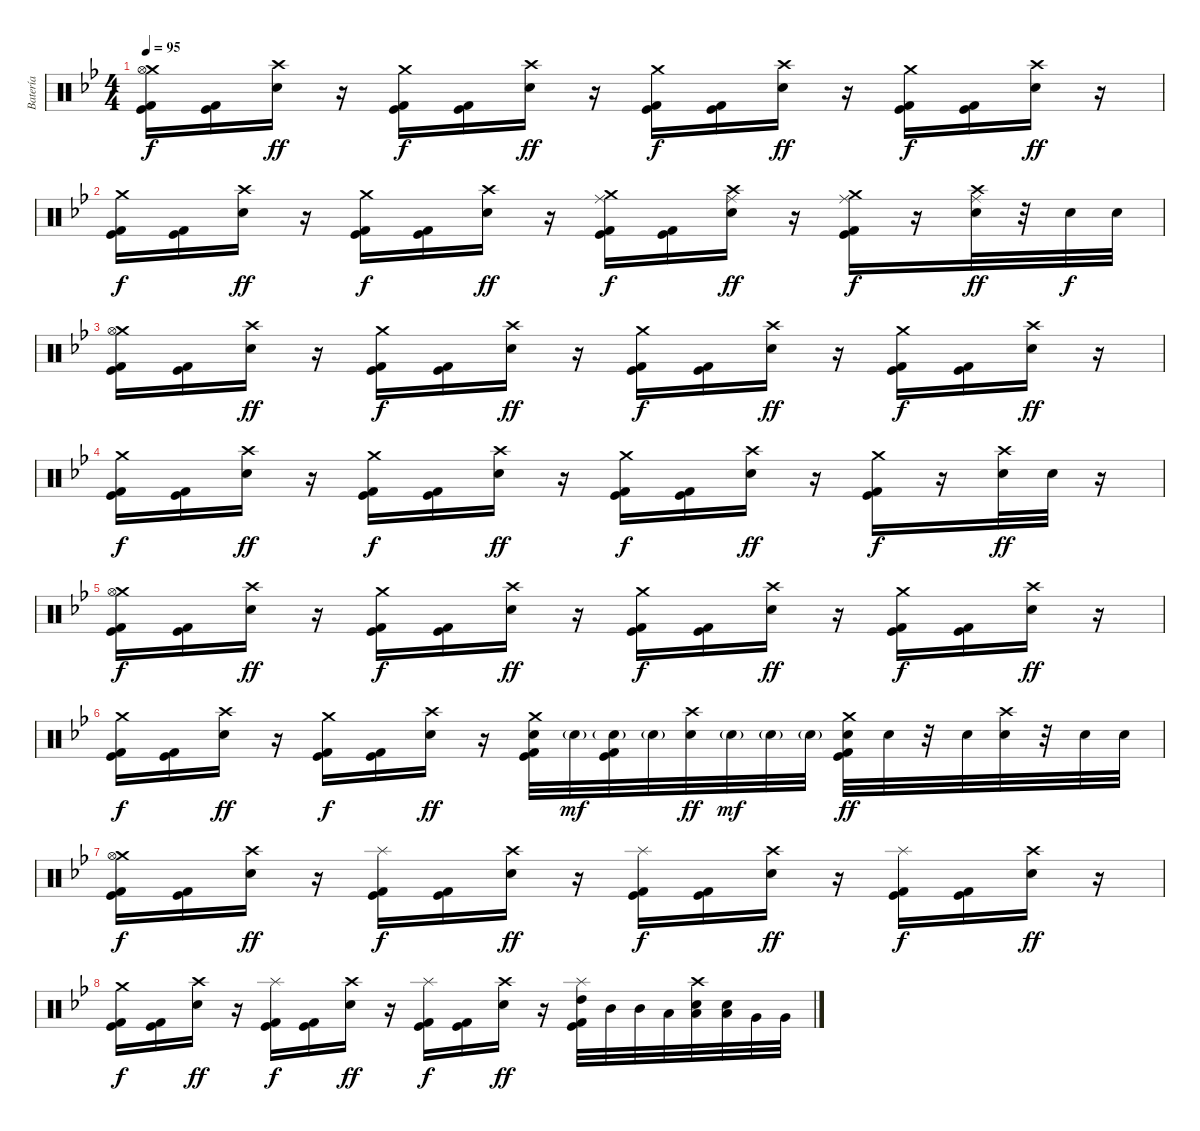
\track ("Batería" "Batería") {instrument percussion}
\staff {score}
\articulation defaults
\ts (4 4)
\tempo 95
\clef neutral
\ks bb
("Crash medium (hit)" "Hi-Hat (open)" "Kick (hit) 2" "Kick (hit)").16{dy f} ("Kick (hit) 2" "Kick (hit)").16 ("Crash high (hit)" "Electric Snare (hit)").16{dy ff} r.16 ("Crash medium (hit)" "Kick (hit) 2" "Kick (hit)").16{dy f} ("Kick (hit) 2" "Kick (hit)").16 ("Crash high (hit)" "Electric Snare (hit)").16{dy ff} r.16 ("Crash medium (hit)" "Kick (hit) 2" "Kick (hit)").16{dy f} ("Kick (hit) 2" "Kick (hit)").16 ("Crash high (hit)" "Electric Snare (hit)").16{dy ff} r.16 ("Crash medium (hit)" "Kick (hit) 2" "Kick (hit)").16{dy f} ("Kick (hit) 2" "Kick (hit)").16 ("Crash high (hit)" "Electric Snare (hit)").16{dy ff} r.16 |
("Crash medium (hit)" "Kick (hit) 2" "Kick (hit)").16{dy f} ("Kick (hit) 2" "Kick (hit)").16 ("Crash high (hit)" "Electric Snare (hit)").16{dy ff} r.16 ("Crash medium (hit)" "Kick (hit) 2" "Kick (hit)").16{dy f} ("Kick (hit) 2" "Kick (hit)").16 ("Crash high (hit)" "Electric Snare (hit)").16{dy ff} r.16 ("Crash medium (hit)" "Ride (middle)" "Kick (hit) 2" "Kick (hit)").16{dy f} ("Kick (hit) 2" "Kick (hit)").16 ("Crash high (hit)" "Ride (middle)" "Electric Snare (hit)").16{dy ff} r.16 ("Crash medium (hit)" "Ride (middle)" "Kick (hit) 2" "Kick (hit)").16{dy f} r.16 ("Crash high (hit)" "Ride (middle)" "Electric Snare (hit)").32{dy ff} r.32 "Electric Snare (hit)".32{dy f} "Electric Snare (hit)".32 |
("Crash medium (hit)" "Hi-Hat (open)" "Kick (hit) 2" "Kick (hit)").16 ("Kick (hit) 2" "Kick (hit)").16 ("Crash high (hit)" "Electric Snare (hit)").16{dy ff} r.16 ("Crash medium (hit)" "Kick (hit) 2" "Kick (hit)").16{dy f} ("Kick (hit) 2" "Kick (hit)").16 ("Crash high (hit)" "Electric Snare (hit)").16{dy ff} r.16 ("Crash medium (hit)" "Kick (hit) 2" "Kick (hit)").16{dy f} ("Kick (hit) 2" "Kick (hit)").16 ("Crash high (hit)" "Electric Snare (hit)").16{dy ff} r.16 ("Crash medium (hit)" "Kick (hit) 2" "Kick (hit)").16{dy f} ("Kick (hit) 2" "Kick (hit)").16 ("Crash high (hit)" "Electric Snare (hit)").16{dy ff} r.16 |
("Crash medium (hit)" "Kick (hit) 2" "Kick (hit)").16{dy f} ("Kick (hit) 2" "Kick (hit)").16 ("Crash high (hit)" "Electric Snare (hit)").16{dy ff} r.16 ("Crash medium (hit)" "Kick (hit) 2" "Kick (hit)").16{dy f} ("Kick (hit) 2" "Kick (hit)").16 ("Crash high (hit)" "Electric Snare (hit)").16{dy ff} r.16 ("Crash medium (hit)" "Kick (hit) 2" "Kick (hit)").16{dy f} ("Kick (hit) 2" "Kick (hit)").16 ("Crash high (hit)" "Electric Snare (hit)").16{dy ff} r.16 ("Crash medium (hit)" "Kick (hit) 2" "Kick (hit)").16{dy f} r.16 ("Crash high (hit)" "Electric Snare (hit)").32{dy ff} "Electric Snare (hit)".32 r.16 |
("Crash medium (hit)" "Hi-Hat (open)" "Kick (hit) 2" "Kick (hit)").16{dy f} ("Kick (hit) 2" "Kick (hit)").16 ("Crash high (hit)" "Electric Snare (hit)").16{dy ff} r.16 ("Crash medium (hit)" "Kick (hit) 2" "Kick (hit)").16{dy f} ("Kick (hit) 2" "Kick (hit)").16 ("Crash high (hit)" "Electric Snare (hit)").16{dy ff} r.16 ("Crash medium (hit)" "Kick (hit) 2" "Kick (hit)").16{dy f} ("Kick (hit) 2" "Kick (hit)").16 ("Crash high (hit)" "Electric Snare (hit)").16{dy ff} r.16 ("Crash medium (hit)" "Kick (hit) 2" "Kick (hit)").16{dy f} ("Kick (hit) 2" "Kick (hit)").16 ("Crash high (hit)" "Electric Snare (hit)").16{dy ff} r.16 |
("Crash medium (hit)" "Kick (hit) 2" "Kick (hit)").16{dy f} ("Kick (hit) 2" "Kick (hit)").16 ("Crash high (hit)" "Electric Snare (hit)").16{dy ff} r.16 ("Crash medium (hit)" "Kick (hit) 2" "Kick (hit)").16{dy f} ("Kick (hit) 2" "Kick (hit)").16 ("Crash high (hit)" "Electric Snare (hit)").16{dy ff} r.16 ("Crash medium (hit)" "Electric Snare (hit)" "Kick (hit) 2" "Kick (hit)").32 "Electric Snare (hit)"{g}.32{dy mf} ("Electric Snare (hit)"{g} "Kick (hit) 2" "Kick (hit)").32 "Electric Snare (hit)"{g}.32 ("Crash high (hit)" "Electric Snare (hit)").32{dy ff} "Electric Snare (hit)"{g}.32{dy mf} "Electric Snare (hit)"{g}.32 "Electric Snare (hit)"{g}.32 ("Crash medium (hit)" "Electric Snare (hit)" "Kick (hit) 2" "Kick (hit)").32{dy ff} "Electric Snare (hit)".32 r.32 "Electric Snare (hit)".32 ("Crash high (hit)" "Electric Snare (hit)").32 r.32 "Electric Snare (hit)".32 "Electric Snare (hit)".32 |
("Crash medium (hit)" "Hi-Hat (open)" "Kick (hit) 2" "Kick (hit)").16{dy f} ("Kick (hit) 2" "Kick (hit)").16 ("Crash high (hit)" "Electric Snare (hit)").16{dy ff} r.16 ("Splash (hit)" "Kick (hit) 2" "Kick (hit)").16{dy f} ("Kick (hit) 2" "Kick (hit)").16 ("Crash high (hit)" "Electric Snare (hit)").16{dy ff} r.16 ("Splash (hit)" "Kick (hit) 2" "Kick (hit)").16{dy f} ("Kick (hit) 2" "Kick (hit)").16 ("Crash high (hit)" "Electric Snare (hit)").16{dy ff} r.16 ("Splash (hit)" "Kick (hit) 2" "Kick (hit)").16{dy f} ("Kick (hit) 2" "Kick (hit)").16 ("Crash high (hit)" "Electric Snare (hit)").16{dy ff} r.16 |
("Crash medium (hit)" "Kick (hit) 2" "Kick (hit)").16{dy f} ("Kick (hit) 2" "Kick (hit)").16 ("Crash high (hit)" "Electric Snare (hit)").16{dy ff} r.16 ("Splash (hit)" "Kick (hit) 2" "Kick (hit)").16{dy f} ("Kick (hit) 2" "Kick (hit)").16 ("Crash high (hit)" "Electric Snare (hit)").16{dy ff} r.16 ("Splash (hit)" "Kick (hit) 2" "Kick (hit)").16{dy f} ("Kick (hit) 2" "Kick (hit)").16 ("Crash high (hit)" "Electric Snare (hit)").16{dy ff} r.16 ("Splash (hit)" "High Tom (hit)" "Kick (hit) 2" "Kick (hit)").32 "Mid Tom (hit)".32 "Mid Tom (hit)".32 "Low Tom (hit)".32 ("Crash high (hit)" "Low Tom (hit)" "Electric Snare (hit)").32 ("Low Tom (hit)" "Electric Snare (hit)").32 "Very Low Tom (hit)".32 "Very Low Tom (hit)".32
